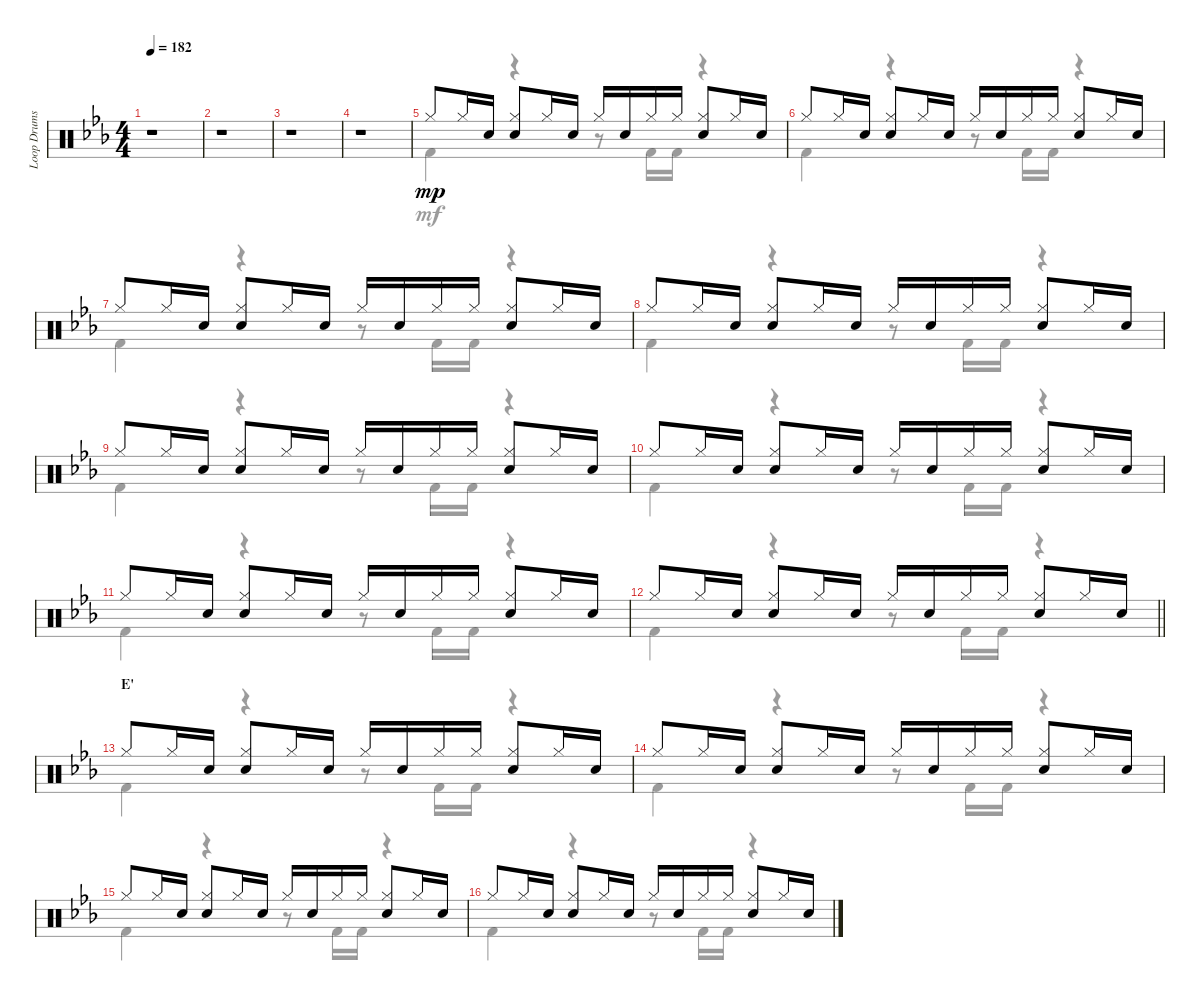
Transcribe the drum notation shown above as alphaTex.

\track ("Loop Drums" "Loop Drums") {instrument percussion}
\staff {score}
\articulation defaults
\voice
\ts (4 4)
\tempo 182
\clef neutral
\ks eb
r.1{dy mp} |
r.1 |
r.1 |
r.1 |
"Hi-Hat (closed)".8 "Hi-Hat (closed)".16 "Electric Snare (hit)".16 ("Hi-Hat (closed)" "Electric Snare (hit)").8 "Hi-Hat (closed)".16 "Electric Snare (hit)".16 "Hi-Hat (closed)".16 "Electric Snare (hit)".16 "Hi-Hat (closed)".16 "Hi-Hat (closed)".16 ("Hi-Hat (closed)" "Electric Snare (hit)").8 "Hi-Hat (closed)".16 "Electric Snare (hit)".16 |
"Hi-Hat (closed)".8 "Hi-Hat (closed)".16 "Electric Snare (hit)".16 ("Hi-Hat (closed)" "Electric Snare (hit)").8 "Hi-Hat (closed)".16 "Electric Snare (hit)".16 "Hi-Hat (closed)".16 "Electric Snare (hit)".16 "Hi-Hat (closed)".16 "Hi-Hat (closed)".16 ("Hi-Hat (closed)" "Electric Snare (hit)").8 "Hi-Hat (closed)".16 "Electric Snare (hit)".16 |
"Hi-Hat (closed)".8 "Hi-Hat (closed)".16 "Electric Snare (hit)".16 ("Hi-Hat (closed)" "Electric Snare (hit)").8 "Hi-Hat (closed)".16 "Electric Snare (hit)".16 "Hi-Hat (closed)".16 "Electric Snare (hit)".16 "Hi-Hat (closed)".16 "Hi-Hat (closed)".16 ("Hi-Hat (closed)" "Electric Snare (hit)").8 "Hi-Hat (closed)".16 "Electric Snare (hit)".16 |
"Hi-Hat (closed)".8 "Hi-Hat (closed)".16 "Electric Snare (hit)".16 ("Hi-Hat (closed)" "Electric Snare (hit)").8 "Hi-Hat (closed)".16 "Electric Snare (hit)".16 "Hi-Hat (closed)".16 "Electric Snare (hit)".16 "Hi-Hat (closed)".16 "Hi-Hat (closed)".16 ("Hi-Hat (closed)" "Electric Snare (hit)").8 "Hi-Hat (closed)".16 "Electric Snare (hit)".16 |
"Hi-Hat (closed)".8 "Hi-Hat (closed)".16 "Electric Snare (hit)".16 ("Hi-Hat (closed)" "Electric Snare (hit)").8 "Hi-Hat (closed)".16 "Electric Snare (hit)".16 "Hi-Hat (closed)".16 "Electric Snare (hit)".16 "Hi-Hat (closed)".16 "Hi-Hat (closed)".16 ("Hi-Hat (closed)" "Electric Snare (hit)").8 "Hi-Hat (closed)".16 "Electric Snare (hit)".16 |
"Hi-Hat (closed)".8 "Hi-Hat (closed)".16 "Electric Snare (hit)".16 ("Hi-Hat (closed)" "Electric Snare (hit)").8 "Hi-Hat (closed)".16 "Electric Snare (hit)".16 "Hi-Hat (closed)".16 "Electric Snare (hit)".16 "Hi-Hat (closed)".16 "Hi-Hat (closed)".16 ("Hi-Hat (closed)" "Electric Snare (hit)").8 "Hi-Hat (closed)".16 "Electric Snare (hit)".16 |
"Hi-Hat (closed)".8 "Hi-Hat (closed)".16 "Electric Snare (hit)".16 ("Hi-Hat (closed)" "Electric Snare (hit)").8 "Hi-Hat (closed)".16 "Electric Snare (hit)".16 "Hi-Hat (closed)".16 "Electric Snare (hit)".16 "Hi-Hat (closed)".16 "Hi-Hat (closed)".16 ("Hi-Hat (closed)" "Electric Snare (hit)").8 "Hi-Hat (closed)".16 "Electric Snare (hit)".16 |
\barLineRight lightlight "Hi-Hat (closed)".8 "Hi-Hat (closed)".16 "Electric Snare (hit)".16
("Hi-Hat (closed)" "Electric Snare (hit)").8 "Hi-Hat (closed)".16 "Electric Snare (hit)".16 "Hi-Hat (closed)".16 "Electric Snare (hit)".16 "Hi-Hat (closed)".16 "Hi-Hat (closed)".16 ("Hi-Hat (closed)" "Electric Snare (hit)").8 "Hi-Hat (closed)".16 "Electric Snare (hit)".16 |
\section ("" "E'")
"Hi-Hat (closed)".8 "Hi-Hat (closed)".16 "Electric Snare (hit)".16 ("Hi-Hat (closed)" "Electric Snare (hit)").8 "Hi-Hat (closed)".16 "Electric Snare (hit)".16 "Hi-Hat (closed)".16 "Electric Snare (hit)".16 "Hi-Hat (closed)".16 "Hi-Hat (closed)".16 ("Hi-Hat (closed)" "Electric Snare (hit)").8 "Hi-Hat (closed)".16 "Electric Snare (hit)".16 |
"Hi-Hat (closed)".8 "Hi-Hat (closed)".16 "Electric Snare (hit)".16 ("Hi-Hat (closed)" "Electric Snare (hit)").8 "Hi-Hat (closed)".16 "Electric Snare (hit)".16 "Hi-Hat (closed)".16 "Electric Snare (hit)".16 "Hi-Hat (closed)".16 "Hi-Hat (closed)".16 ("Hi-Hat (closed)" "Electric Snare (hit)").8 "Hi-Hat (closed)".16 "Electric Snare (hit)".16 |
"Hi-Hat (closed)".8 "Hi-Hat (closed)".16 "Electric Snare (hit)".16 ("Hi-Hat (closed)" "Electric Snare (hit)").8 "Hi-Hat (closed)".16 "Electric Snare (hit)".16 "Hi-Hat (closed)".16 "Electric Snare (hit)".16 "Hi-Hat (closed)".16 "Hi-Hat (closed)".16 ("Hi-Hat (closed)" "Electric Snare (hit)").8 "Hi-Hat (closed)".16 "Electric Snare (hit)".16 |
"Hi-Hat (closed)".8 "Hi-Hat (closed)".16 "Electric Snare (hit)".16 ("Hi-Hat (closed)" "Electric Snare (hit)").8 "Hi-Hat (closed)".16 "Electric Snare (hit)".16 "Hi-Hat (closed)".16 "Electric Snare (hit)".16 "Hi-Hat (closed)".16 "Hi-Hat (closed)".16 ("Hi-Hat (closed)" "Electric Snare (hit)").8 "Hi-Hat (closed)".16 "Electric Snare (hit)".16
\voice
\clef neutral
\ottava regular
\simile none
\ks eb
r.1{dy mf} |
r.1 |
r.1 |
r.1 |
"Kick (hit) 2".4 r.4 r.8 "Kick (hit) 2".16 "Kick (hit) 2".16 r.4 |
"Kick (hit) 2".4 r.4 r.8 "Kick (hit) 2".16 "Kick (hit) 2".16 r.4 |
"Kick (hit) 2".4 r.4 r.8 "Kick (hit) 2".16 "Kick (hit) 2".16 r.4 |
"Kick (hit) 2".4 r.4 r.8 "Kick (hit) 2".16 "Kick (hit) 2".16 r.4 |
"Kick (hit) 2".4 r.4 r.8 "Kick (hit) 2".16 "Kick (hit) 2".16 r.4 |
"Kick (hit) 2".4 r.4 r.8 "Kick (hit) 2".16 "Kick (hit) 2".16 r.4 |
"Kick (hit) 2".4 r.4 r.8 "Kick (hit) 2".16 "Kick (hit) 2".16 r.4 |
\barLineRight lightlight "Kick (hit) 2".4
r.4 r.8 "Kick (hit) 2".16 "Kick (hit) 2".16 r.4 |
"Kick (hit) 2".4 r.4 r.8 "Kick (hit) 2".16 "Kick (hit) 2".16 r.4 |
"Kick (hit) 2".4 r.4 r.8 "Kick (hit) 2".16 "Kick (hit) 2".16 r.4 |
"Kick (hit) 2".4 r.4 r.8 "Kick (hit) 2".16 "Kick (hit) 2".16 r.4 |
"Kick (hit) 2".4 r.4 r.8 "Kick (hit) 2".16 "Kick (hit) 2".16 r.4
